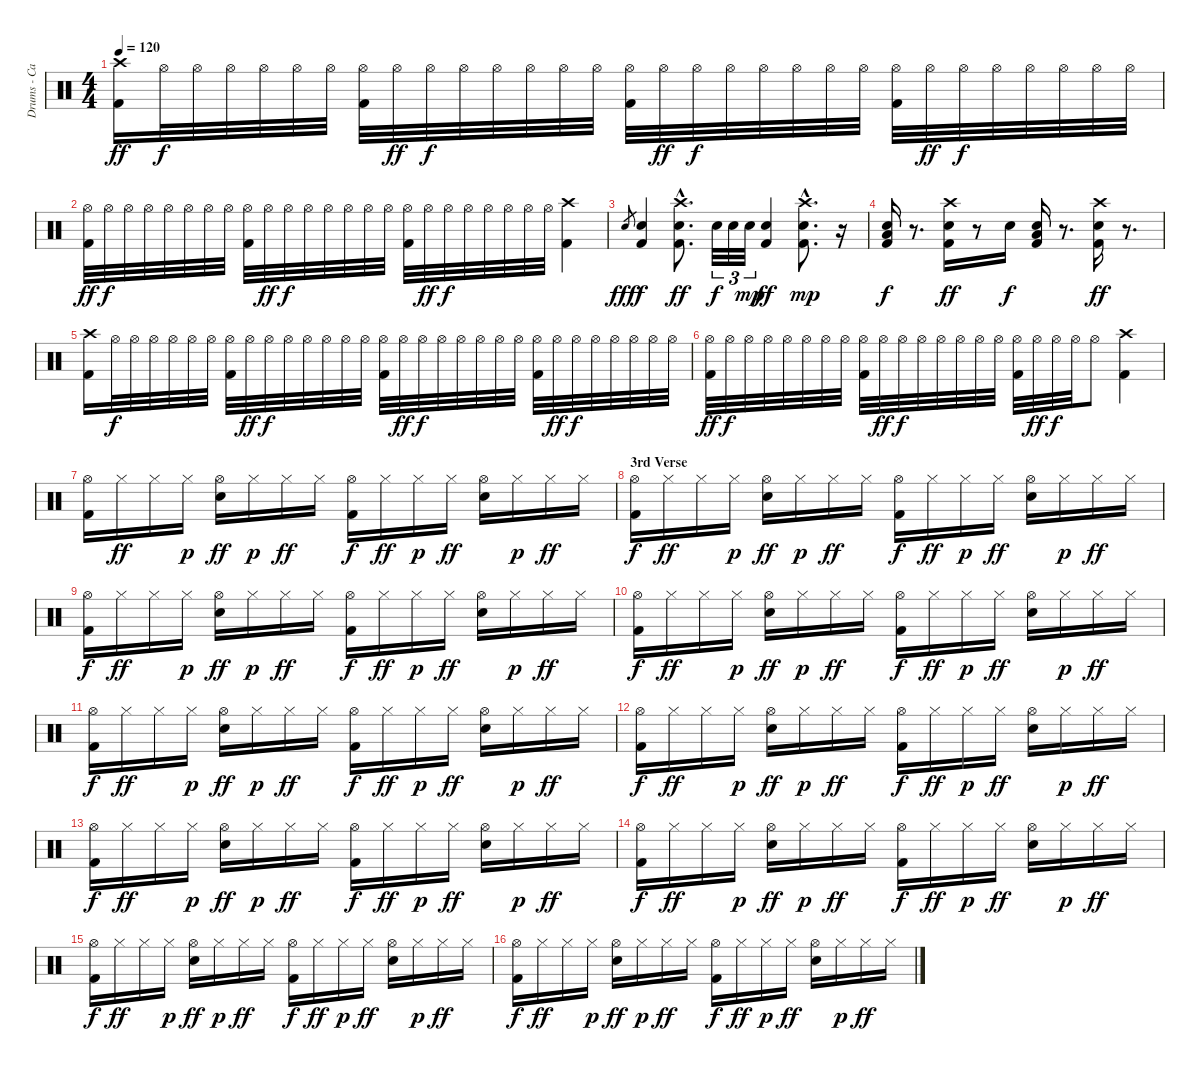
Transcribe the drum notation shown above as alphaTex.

\track ("Drums - Carl Palmer" "Drums - Ca") {instrument percussion}
\staff {score}
\articulation defaults
\ts (4 4)
\tempo 120
\clef neutral
\ks c
("Crash high (hit)" "Kick (hit) 2").16{dy ff} "Hi-Hat (open)".32{dy f} "Hi-Hat (open)".32 "Hi-Hat (open)".32 "Hi-Hat (open)".32 "Hi-Hat (open)".32 "Hi-Hat (open)".32 ("Hi-Hat (open)" "Kick (hit) 2").32 "Hi-Hat (open)".32{dy ff} "Hi-Hat (open)".32{dy f} "Hi-Hat (open)".32 "Hi-Hat (open)".32 "Hi-Hat (open)".32 "Hi-Hat (open)".32 "Hi-Hat (open)".32 ("Hi-Hat (open)" "Kick (hit) 2").32 "Hi-Hat (open)".32{dy ff} "Hi-Hat (open)".32{dy f} "Hi-Hat (open)".32 "Hi-Hat (open)".32 "Hi-Hat (open)".32 "Hi-Hat (open)".32 "Hi-Hat (open)".32 ("Hi-Hat (open)" "Kick (hit) 2").32 "Hi-Hat (open)".32{dy ff} "Hi-Hat (open)".32{dy f} "Hi-Hat (open)".32 "Hi-Hat (open)".32 "Hi-Hat (open)".32 "Hi-Hat (open)".32 "Hi-Hat (open)".32 |
("Hi-Hat (open)" "Kick (hit) 2").32{dy ff} "Hi-Hat (open)".32{dy f} "Hi-Hat (open)".32 "Hi-Hat (open)".32 "Hi-Hat (open)".32 "Hi-Hat (open)".32 "Hi-Hat (open)".32 "Hi-Hat (open)".32 ("Hi-Hat (open)" "Kick (hit) 2").32 "Hi-Hat (open)".32{dy ff} "Hi-Hat (open)".32{dy f} "Hi-Hat (open)".32 "Hi-Hat (open)".32 "Hi-Hat (open)".32 "Hi-Hat (open)".32 "Hi-Hat (open)".32 ("Hi-Hat (open)" "Kick (hit) 2").32 "Hi-Hat (open)".32{dy ff} "Hi-Hat (open)".32{dy f} "Hi-Hat (open)".32 "Hi-Hat (open)".32 "Hi-Hat (open)".32 "Hi-Hat (open)".32 "Hi-Hat (open)".32 ("Crash high (hit)" "Kick (hit) 2").4 |
"Snare (hit) 2".8{gr dy fff} ("Snare (hit) 2" "Kick (hit) 2").4{dy f} ("Crash high (hit)"{hac} "Snare (hit) 2"{hac} "Kick (hit) 2"{hac}).8{d dy ff} "Snare (hit) 2".32{tu (3 2) dy f} "Snare (hit) 2".32{tu (3 2)} "Snare (hit) 2".32{tu (3 2) dy mp} ("Snare (hit) 2" "Kick (hit) 2").4{dy ff} ("Crash high (hit)"{hac} "Snare (hit) 2"{hac} "Kick (hit) 2"{hac}).8{d dy mp} r.16 |
("Snare (hit) 2" "Low Floor Tom (hit)" "Kick (hit) 2").16{dy f} r.8{d} ("Crash high (hit)" "Snare (hit) 2" "Kick (hit) 2").16{dy ff} r.8 "Snare (hit) 2".16{dy f} ("Snare (hit) 2" "Low Floor Tom (hit)" "Kick (hit) 2").16 r.8{d} ("Crash high (hit)" "Snare (hit) 2" "Kick (hit) 2").16{dy ff} r.8{d} |
("Crash high (hit)" "Kick (hit) 2").16 "Hi-Hat (open)".32{dy f} "Hi-Hat (open)".32 "Hi-Hat (open)".32 "Hi-Hat (open)".32 "Hi-Hat (open)".32 "Hi-Hat (open)".32 ("Hi-Hat (open)" "Kick (hit) 2").32 "Hi-Hat (open)".32{dy ff} "Hi-Hat (open)".32{dy f} "Hi-Hat (open)".32 "Hi-Hat (open)".32 "Hi-Hat (open)".32 "Hi-Hat (open)".32 "Hi-Hat (open)".32 ("Hi-Hat (open)" "Kick (hit) 2").32 "Hi-Hat (open)".32{dy ff} "Hi-Hat (open)".32{dy f} "Hi-Hat (open)".32 "Hi-Hat (open)".32 "Hi-Hat (open)".32 "Hi-Hat (open)".32 "Hi-Hat (open)".32 ("Hi-Hat (open)" "Kick (hit) 2").32 "Hi-Hat (open)".32{dy ff} "Hi-Hat (open)".32{dy f} "Hi-Hat (open)".32 "Hi-Hat (open)".32 "Hi-Hat (open)".32 "Hi-Hat (open)".32 "Hi-Hat (open)".32 |
("Hi-Hat (open)" "Kick (hit) 2").32{dy ff} "Hi-Hat (open)".32{dy f} "Hi-Hat (open)".32 "Hi-Hat (open)".32 "Hi-Hat (open)".32 "Hi-Hat (open)".32 "Hi-Hat (open)".32 "Hi-Hat (open)".32 ("Hi-Hat (open)" "Kick (hit) 2").32 "Hi-Hat (open)".32{dy ff} "Hi-Hat (open)".32{dy f} "Hi-Hat (open)".32 "Hi-Hat (open)".32 "Hi-Hat (open)".32 "Hi-Hat (open)".32 "Hi-Hat (open)".32 ("Hi-Hat (open)" "Kick (hit) 2").32 "Hi-Hat (open)".32{dy ff} "Hi-Hat (open)".32{dy f} "Hi-Hat (open)".32 "Hi-Hat (open)".8 ("Crash high (hit)" "Kick (hit) 2").4 |
("Hi-Hat (open)" "Kick (hit) 2").16 "Hi-Hat (closed)".16{dy ff} "Hi-Hat (closed)".16 "Hi-Hat (closed)".16{dy p} ("Hi-Hat (open)" "Snare (hit) 2").16{dy ff} "Hi-Hat (closed)".16{dy p} "Hi-Hat (closed)".16{dy ff} "Hi-Hat (closed)".16 ("Hi-Hat (open)" "Kick (hit) 2").16{dy f} "Hi-Hat (closed)".16{dy ff} "Hi-Hat (closed)".16{dy p} "Hi-Hat (closed)".16{dy ff} ("Hi-Hat (open)" "Snare (hit) 2").16 "Hi-Hat (closed)".16{dy p} "Hi-Hat (closed)".16{dy ff} "Hi-Hat (closed)".16 |
\section ("" "3rd Verse")
("Hi-Hat (open)" "Kick (hit) 2").16{dy f} "Hi-Hat (closed)".16{dy ff} "Hi-Hat (closed)".16 "Hi-Hat (closed)".16{dy p} ("Hi-Hat (open)" "Snare (hit) 2").16{dy ff} "Hi-Hat (closed)".16{dy p} "Hi-Hat (closed)".16{dy ff} "Hi-Hat (closed)".16 ("Hi-Hat (open)" "Kick (hit) 2").16{dy f} "Hi-Hat (closed)".16{dy ff} "Hi-Hat (closed)".16{dy p} "Hi-Hat (closed)".16{dy ff} ("Hi-Hat (open)" "Snare (hit) 2").16 "Hi-Hat (closed)".16{dy p} "Hi-Hat (closed)".16{dy ff} "Hi-Hat (closed)".16 |
("Hi-Hat (open)" "Kick (hit) 2").16{dy f} "Hi-Hat (closed)".16{dy ff} "Hi-Hat (closed)".16 "Hi-Hat (closed)".16{dy p} ("Hi-Hat (open)" "Snare (hit) 2").16{dy ff} "Hi-Hat (closed)".16{dy p} "Hi-Hat (closed)".16{dy ff} "Hi-Hat (closed)".16 ("Hi-Hat (open)" "Kick (hit) 2").16{dy f} "Hi-Hat (closed)".16{dy ff} "Hi-Hat (closed)".16{dy p} "Hi-Hat (closed)".16{dy ff} ("Hi-Hat (open)" "Snare (hit) 2").16 "Hi-Hat (closed)".16{dy p} "Hi-Hat (closed)".16{dy ff} "Hi-Hat (closed)".16 |
("Hi-Hat (open)" "Kick (hit) 2").16{dy f} "Hi-Hat (closed)".16{dy ff} "Hi-Hat (closed)".16 "Hi-Hat (closed)".16{dy p} ("Hi-Hat (open)" "Snare (hit) 2").16{dy ff} "Hi-Hat (closed)".16{dy p} "Hi-Hat (closed)".16{dy ff} "Hi-Hat (closed)".16 ("Hi-Hat (open)" "Kick (hit) 2").16{dy f} "Hi-Hat (closed)".16{dy ff} "Hi-Hat (closed)".16{dy p} "Hi-Hat (closed)".16{dy ff} ("Hi-Hat (open)" "Snare (hit) 2").16 "Hi-Hat (closed)".16{dy p} "Hi-Hat (closed)".16{dy ff} "Hi-Hat (closed)".16 |
("Hi-Hat (open)" "Kick (hit) 2").16{dy f} "Hi-Hat (closed)".16{dy ff} "Hi-Hat (closed)".16 "Hi-Hat (closed)".16{dy p} ("Hi-Hat (open)" "Snare (hit) 2").16{dy ff} "Hi-Hat (closed)".16{dy p} "Hi-Hat (closed)".16{dy ff} "Hi-Hat (closed)".16 ("Hi-Hat (open)" "Kick (hit) 2").16{dy f} "Hi-Hat (closed)".16{dy ff} "Hi-Hat (closed)".16{dy p} "Hi-Hat (closed)".16{dy ff} ("Hi-Hat (open)" "Snare (hit) 2").16 "Hi-Hat (closed)".16{dy p} "Hi-Hat (closed)".16{dy ff} "Hi-Hat (closed)".16 |
("Hi-Hat (open)" "Kick (hit) 2").16{dy f} "Hi-Hat (closed)".16{dy ff} "Hi-Hat (closed)".16 "Hi-Hat (closed)".16{dy p} ("Hi-Hat (open)" "Snare (hit) 2").16{dy ff} "Hi-Hat (closed)".16{dy p} "Hi-Hat (closed)".16{dy ff} "Hi-Hat (closed)".16 ("Hi-Hat (open)" "Kick (hit) 2").16{dy f} "Hi-Hat (closed)".16{dy ff} "Hi-Hat (closed)".16{dy p} "Hi-Hat (closed)".16{dy ff} ("Hi-Hat (open)" "Snare (hit) 2").16 "Hi-Hat (closed)".16{dy p} "Hi-Hat (closed)".16{dy ff} "Hi-Hat (closed)".16 |
("Hi-Hat (open)" "Kick (hit) 2").16{dy f} "Hi-Hat (closed)".16{dy ff} "Hi-Hat (closed)".16 "Hi-Hat (closed)".16{dy p} ("Hi-Hat (open)" "Snare (hit) 2").16{dy ff} "Hi-Hat (closed)".16{dy p} "Hi-Hat (closed)".16{dy ff} "Hi-Hat (closed)".16 ("Hi-Hat (open)" "Kick (hit) 2").16{dy f} "Hi-Hat (closed)".16{dy ff} "Hi-Hat (closed)".16{dy p} "Hi-Hat (closed)".16{dy ff} ("Hi-Hat (open)" "Snare (hit) 2").16 "Hi-Hat (closed)".16{dy p} "Hi-Hat (closed)".16{dy ff} "Hi-Hat (closed)".16 |
("Hi-Hat (open)" "Kick (hit) 2").16{dy f} "Hi-Hat (closed)".16{dy ff} "Hi-Hat (closed)".16 "Hi-Hat (closed)".16{dy p} ("Hi-Hat (open)" "Snare (hit) 2").16{dy ff} "Hi-Hat (closed)".16{dy p} "Hi-Hat (closed)".16{dy ff} "Hi-Hat (closed)".16 ("Hi-Hat (open)" "Kick (hit) 2").16{dy f} "Hi-Hat (closed)".16{dy ff} "Hi-Hat (closed)".16{dy p} "Hi-Hat (closed)".16{dy ff} ("Hi-Hat (open)" "Snare (hit) 2").16 "Hi-Hat (closed)".16{dy p} "Hi-Hat (closed)".16{dy ff} "Hi-Hat (closed)".16 |
("Hi-Hat (open)" "Kick (hit) 2").16{dy f} "Hi-Hat (closed)".16{dy ff} "Hi-Hat (closed)".16 "Hi-Hat (closed)".16{dy p} ("Hi-Hat (open)" "Snare (hit) 2").16{dy ff} "Hi-Hat (closed)".16{dy p} "Hi-Hat (closed)".16{dy ff} "Hi-Hat (closed)".16 ("Hi-Hat (open)" "Kick (hit) 2").16{dy f} "Hi-Hat (closed)".16{dy ff} "Hi-Hat (closed)".16{dy p} "Hi-Hat (closed)".16{dy ff} ("Hi-Hat (open)" "Snare (hit) 2").16 "Hi-Hat (closed)".16{dy p} "Hi-Hat (closed)".16{dy ff} "Hi-Hat (closed)".16 |
("Hi-Hat (open)" "Kick (hit) 2").16{dy f} "Hi-Hat (closed)".16{dy ff} "Hi-Hat (closed)".16 "Hi-Hat (closed)".16{dy p} ("Hi-Hat (open)" "Snare (hit) 2").16{dy ff} "Hi-Hat (closed)".16{dy p} "Hi-Hat (closed)".16{dy ff} "Hi-Hat (closed)".16 ("Hi-Hat (open)" "Kick (hit) 2").16{dy f} "Hi-Hat (closed)".16{dy ff} "Hi-Hat (closed)".16{dy p} "Hi-Hat (closed)".16{dy ff} ("Hi-Hat (open)" "Snare (hit) 2").16 "Hi-Hat (closed)".16{dy p} "Hi-Hat (closed)".16{dy ff} "Hi-Hat (closed)".16
